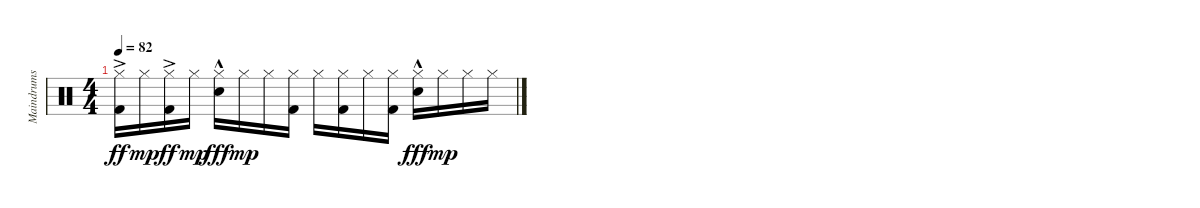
\track ("Maindrums" "Maindrums") {instrument percussion}
\staff {score}
\articulation defaults
\ts (4 4)
\tempo 82
\clef neutral
\ks c
("Hi-Hat (closed)" "Kick (hit) 2"{ac}).16{dy ff} "Hi-Hat (closed)".16{dy mp} ("Hi-Hat (closed)" "Kick (hit) 2"{ac}).16{dy ff} "Hi-Hat (closed)".16{dy mp} ("Hi-Hat (closed)" "Electric Snare (hit)"{hac}).16{dy fff} "Hi-Hat (closed)".16{dy mp} "Hi-Hat (closed)".16 ("Hi-Hat (closed)" "Kick (hit) 2").16 "Hi-Hat (closed)".16 ("Hi-Hat (closed)" "Kick (hit) 2").16 "Hi-Hat (closed)".16 ("Hi-Hat (closed)" "Kick (hit) 2").16 ("Hi-Hat (closed)" "Electric Snare (hit)"{hac}).16{dy fff} "Hi-Hat (closed)".16{dy mp} "Hi-Hat (closed)".16 "Hi-Hat (closed)".16
